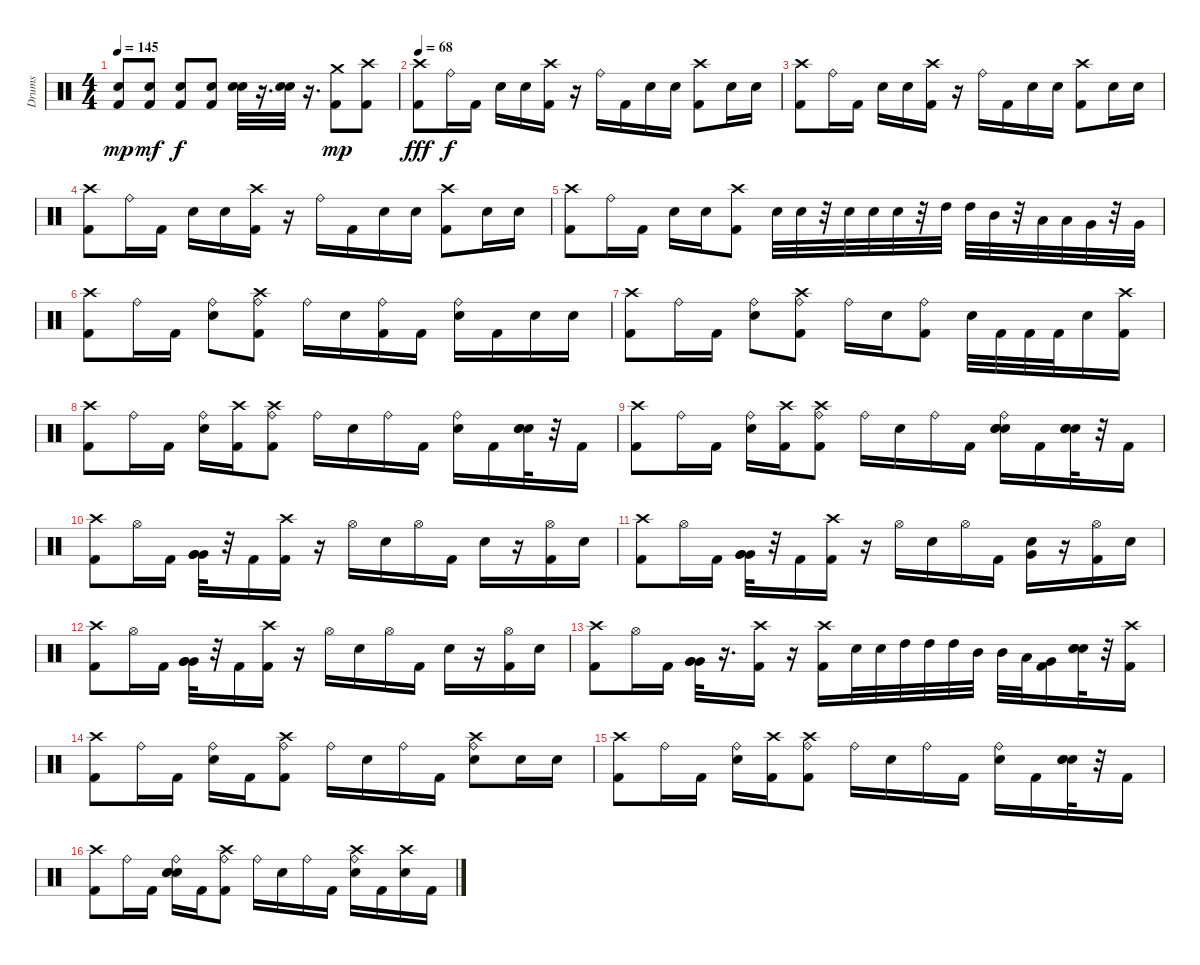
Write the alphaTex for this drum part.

\track ("Drums" "Drums") {instrument percussion}
\staff {score}
\articulation defaults
\ts (4 4)
\tempo 145
\clef neutral
\ks c
("Electric Snare (hit)" "Kick (hit) 2").8{dy mp} ("Electric Snare (hit)" "Kick (hit) 2").8{dy mf} ("Electric Snare (hit)" "Kick (hit) 2").8{dy f} ("Electric Snare (hit)" "Kick (hit) 2").8 ("Electric Snare (hit)" "Electric Snare (hit)").32 r.16{d} ("Electric Snare (hit)" "Electric Snare (hit)").32 r.16{d} ("Kick (hit) 2" "Crash medium (hit)").8{dy mp} ("Crash high (hit)" "Kick (hit) 2").8 |
\tempo 68
("Crash high (hit)" "Kick (hit) 2").8{dy fff volume 16} "Ride (bell)".16{dy f} "Kick (hit) 2".16 "Electric Snare (hit)".16 "Electric Snare (hit)".16 ("Kick (hit) 2" "Crash high (hit)").16 r.16 "Ride (bell)".16 "Kick (hit) 2".16 "Electric Snare (hit)".16 "Electric Snare (hit)".16 ("Crash high (hit)" "Kick (hit) 2").8 "Electric Snare (hit)".16 "Electric Snare (hit)".16 |
("Kick (hit) 2" "Crash high (hit)").8 "Ride (bell)".16 "Kick (hit) 2".16 "Electric Snare (hit)".16 "Electric Snare (hit)".16 ("Kick (hit) 2" "Crash high (hit)").16 r.16 "Ride (bell)".16 "Kick (hit) 2".16 "Electric Snare (hit)".16 "Electric Snare (hit)".16 ("Crash high (hit)" "Kick (hit) 2").8 "Electric Snare (hit)".16 "Electric Snare (hit)".16 |
("Crash high (hit)" "Kick (hit) 2").8 "Ride (bell)".16 "Kick (hit) 2".16 "Electric Snare (hit)".16 "Electric Snare (hit)".16 ("Kick (hit) 2" "Crash high (hit)").16 r.16 "Ride (bell)".16 "Kick (hit) 2".16 "Electric Snare (hit)".16 "Electric Snare (hit)".16 ("Crash high (hit)" "Kick (hit) 2").8 "Electric Snare (hit)".16 "Electric Snare (hit)".16 |
("Kick (hit) 2" "Crash high (hit)").8 "Ride (bell)".16 "Kick (hit) 2".16 "Electric Snare (hit)".16 "Electric Snare (hit)".16 ("Crash high (hit)" "Kick (hit) 2").8 "Electric Snare (hit)".32 "Electric Snare (hit)".32 r.32 "Electric Snare (hit)".32 "Electric Snare (hit)".32 "Electric Snare (hit)".32 r.32 "High Tom (hit)".32 "High Tom (hit)".32 "Mid Tom (hit)".32 r.32 "Low Tom (hit)".32 "Low Tom (hit)".32 "Very Low Tom (hit)".32 r.32 "Very Low Tom (hit)".32 |
("Crash high (hit)" "Kick (hit) 2").8 "Ride (bell)".16 "Kick (hit) 2".16 ("Ride (bell)" "Electric Snare (hit)").8 ("Ride (bell)" "Crash high (hit)" "Kick (hit) 2").8 "Ride (bell)".16 "Electric Snare (hit)".16 ("Ride (bell)" "Kick (hit) 2").16 "Kick (hit) 2".16 ("Electric Snare (hit)" "Ride (bell)").16 "Kick (hit) 2".16 "Electric Snare (hit)".16 "Electric Snare (hit)".16 |
("Kick (hit) 2" "Crash high (hit)").8 "Ride (bell)".16 "Kick (hit) 2".16 ("Ride (bell)" "Electric Snare (hit)").8 ("Ride (bell)" "Crash high (hit)" "Kick (hit) 2").8 "Ride (bell)".16 "Electric Snare (hit)".16 ("Ride (bell)" "Kick (hit) 2").8 "Electric Snare (hit)".32 "Kick (hit) 2".32 "Kick (hit) 2".32 "Kick (hit) 2".32 "Electric Snare (hit)".16 ("Crash high (hit)" "Kick (hit) 2").16 |
("Kick (hit) 2" "Crash high (hit)").8 "Ride (bell)".16 "Kick (hit) 2".16 ("Ride (bell)" "Electric Snare (hit)").16 ("Crash high (hit)" "Kick (hit) 2").16 ("Ride (bell)" "Crash high (hit)" "Kick (hit) 2").8 "Ride (bell)".16 "Electric Snare (hit)".16 "Ride (bell)".16 "Kick (hit) 2".16 ("Electric Snare (hit)" "Ride (bell)").16 "Kick (hit) 2".16 ("Electric Snare (hit)" "Electric Snare (hit)" "Electric Snare (hit)").32 r.32 "Kick (hit) 2".16 |
("Crash high (hit)" "Kick (hit) 2").8 "Ride (bell)".16 "Kick (hit) 2".16 ("Ride (bell)" "Electric Snare (hit)").16 ("Crash high (hit)" "Kick (hit) 2").16 ("Ride (bell)" "Crash high (hit)" "Kick (hit) 2").8 "Ride (bell)".16 "Electric Snare (hit)".16 "Ride (bell)".16 "Kick (hit) 2".16 ("Ride (bell)" "Electric Snare (hit)" "Electric Snare (hit)" "Electric Snare (hit)").16 "Kick (hit) 2".16 ("Electric Snare (hit)" "Electric Snare (hit)" "Electric Snare (hit)").32 r.32 "Kick (hit) 2".16 |
("Crash high (hit)" "Kick (hit) 2").8 "Hi-Hat (open)".16 "Kick (hit) 2".16 ("Very Low Tom (hit)" "Very Low Tom (hit)" "Very Low Tom (hit)").32 r.32 "Kick (hit) 2".16 ("Crash high (hit)" "Kick (hit) 2").16 r.16 "Hi-Hat (open)".16 "Electric Snare (hit)".16 "Hi-Hat (open)".16 "Kick (hit) 2".16 "Electric Snare (hit)".16 r.16 ("Kick (hit) 2" "Hi-Hat (open)").16 "Electric Snare (hit)".16 |
("Kick (hit) 2" "Crash high (hit)").8 "Hi-Hat (open)".16 "Kick (hit) 2".16 ("Very Low Tom (hit)" "Very Low Tom (hit)" "Very Low Tom (hit)").32 r.32 "Kick (hit) 2".16 ("Crash high (hit)" "Kick (hit) 2").16 r.16 "Hi-Hat (open)".16 "Electric Snare (hit)".16 "Hi-Hat (open)".16 "Kick (hit) 2".16 ("Electric Snare (hit)" "Very Low Tom (hit)").16 r.16 ("Kick (hit) 2" "Hi-Hat (open)").16 "Electric Snare (hit)".16 |
("Kick (hit) 2" "Crash high (hit)").8 "Hi-Hat (open)".16 "Kick (hit) 2".16 ("Very Low Tom (hit)" "Very Low Tom (hit)" "Very Low Tom (hit)").32 r.32 "Kick (hit) 2".16 ("Crash high (hit)" "Kick (hit) 2").16 r.16 "Hi-Hat (open)".16 "Electric Snare (hit)".16 "Hi-Hat (open)".16 "Kick (hit) 2".16 "Electric Snare (hit)".16 r.16 ("Kick (hit) 2" "Hi-Hat (open)").16 "Electric Snare (hit)".16 |
("Crash high (hit)" "Kick (hit) 2").8 "Hi-Hat (open)".16 "Kick (hit) 2".16 ("Very Low Tom (hit)" "Very Low Tom (hit)" "Very Low Tom (hit)").32 r.16{d} ("Crash high (hit)" "Kick (hit) 2").16 r.16 ("Crash high (hit)" "Kick (hit) 2").16 "Electric Snare (hit)".32 "Electric Snare (hit)".32 "High Tom (hit)".32 "High Tom (hit)".32 "High Tom (hit)".32 "Mid Tom (hit)".32 "Mid Tom (hit)".32 "Low Tom (hit)".32 ("Kick (hit) 2" "Very Low Tom (hit)").16 ("Electric Snare (hit)" "Electric Snare (hit)" "Electric Snare (hit)").32 r.32 ("Crash high (hit)" "Kick (hit) 2").16 |
("Kick (hit) 2" "Crash high (hit)").8 "Ride (bell)".16 "Kick (hit) 2".16 ("Ride (bell)" "Electric Snare (hit)").16 "Kick (hit) 2".16 ("Ride (bell)" "Crash high (hit)" "Kick (hit) 2").8 "Ride (bell)".16 "Electric Snare (hit)".16 "Ride (bell)".16 "Kick (hit) 2".16 ("Electric Snare (hit)" "Ride (bell)" "Crash high (hit)").8 "Electric Snare (hit)".16 "Electric Snare (hit)".16 |
("Kick (hit) 2" "Crash high (hit)").8 "Ride (bell)".16 "Kick (hit) 2".16 ("Ride (bell)" "Electric Snare (hit)").16 ("Crash high (hit)" "Kick (hit) 2").16 ("Ride (bell)" "Crash high (hit)" "Kick (hit) 2").8 "Ride (bell)".16 "Electric Snare (hit)".16 "Ride (bell)".16 "Kick (hit) 2".16 ("Electric Snare (hit)" "Ride (bell)").16 "Kick (hit) 2".16 ("Electric Snare (hit)" "Electric Snare (hit)" "Electric Snare (hit)").32 r.32 "Kick (hit) 2".16 |
("Kick (hit) 2" "Crash high (hit)").8 "Ride (bell)".16 "Kick (hit) 2".16 ("Ride (bell)" "Electric Snare (hit)" "Electric Snare (hit)" "Electric Snare (hit)").16 "Kick (hit) 2".16 ("Ride (bell)" "Crash high (hit)" "Kick (hit) 2").8 "Ride (bell)".16 "Electric Snare (hit)".16 "Ride (bell)".16 "Kick (hit) 2".16 ("Electric Snare (hit)" "Ride (bell)" "Crash high (hit)").16 "Kick (hit) 2".16 ("Electric Snare (hit)" "Crash high (hit)").16 "Kick (hit) 2".16
